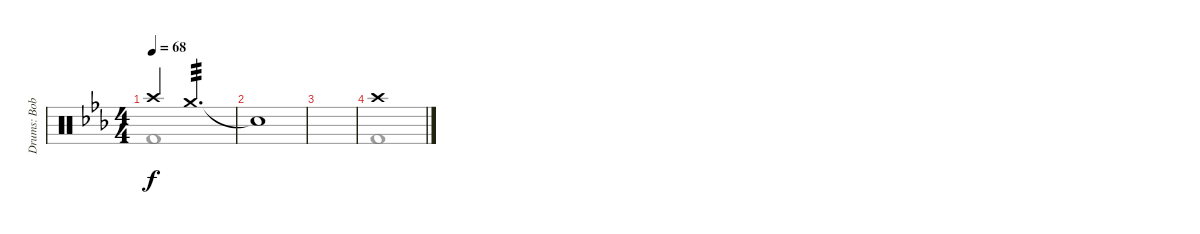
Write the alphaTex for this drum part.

\track ("Drums: Bobby" "Drums: Bob") {instrument percussion}
\staff {score}
\articulation defaults
\voice
\ts (4 4)
\tempo 68
\clef neutral
\ks eb "Crash high (hit)".4{dy f} "Crash medium (hit)".2{d tp 3}
|
"Snare (hit)"{t}.1 |
|
"Crash high (hit)".1
\voice
\clef neutral
\ottava regular
\simile none
\ks eb "Kick (hit) 2".1{dy f}
|
|
|
"Kick (hit) 2".1
